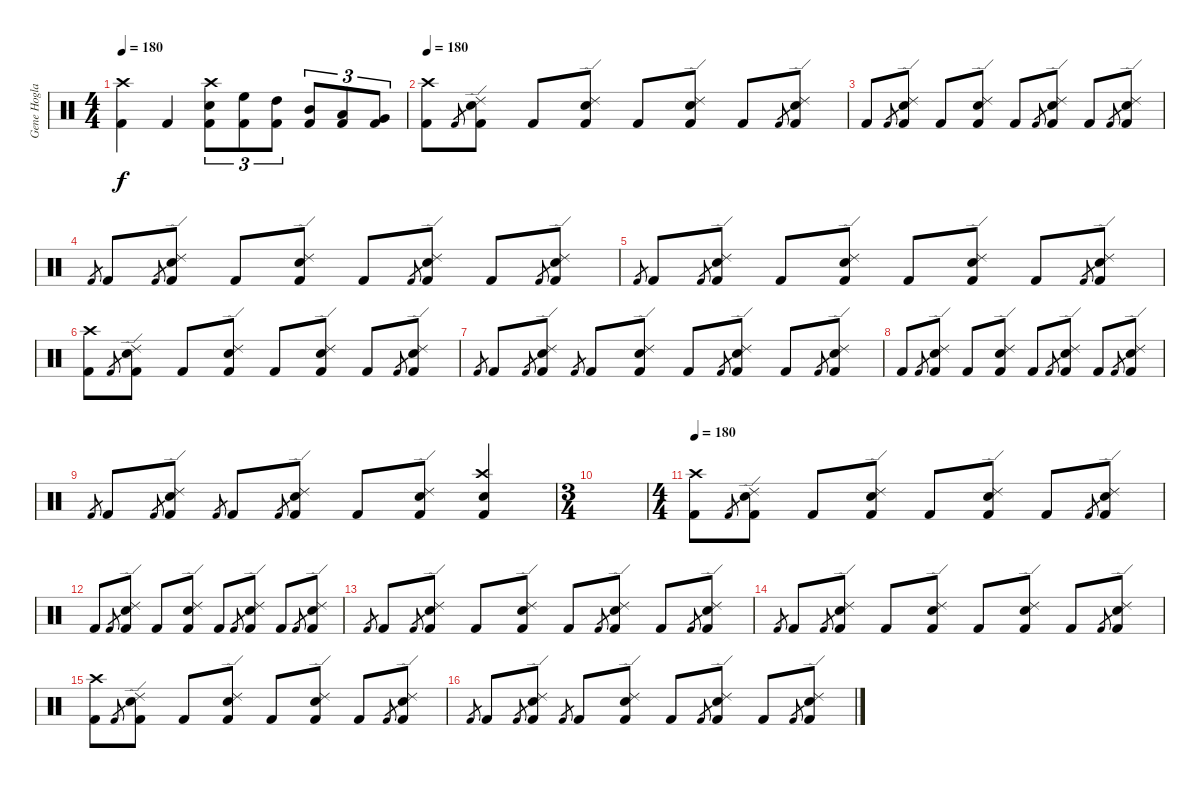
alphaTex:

\track ("Gene Hoglan" "Gene Hogla") {instrument percussion}
\staff {score}
\articulation defaults
\ts (4 4)
\tempo 180
\clef neutral
\ks c
("Kick (hit) 2" "Crash high (hit)").4{dy f} "Kick (hit) 2".4 ("Kick (hit) 2" "Electric Snare (hit)" "Crash high (hit)").8{tu (3 2)} ("Kick (hit) 2" "High Floor Tom (hit)").8{tu (3 2)} ("Kick (hit) 2" "High Tom (hit)").8{tu (3 2)} ("Kick (hit) 2" "Mid Tom (hit)").8{tu (3 2)} ("Kick (hit) 2" "Low Tom (hit)").8{tu (3 2)} ("Kick (hit) 2" "Very Low Tom (hit)").8{tu (3 2)} |
\tempo 180
("Kick (hit) 2" "Crash high (hit)").8 "Kick (hit) 2".8{gr} ("Kick (hit) 2" "Electric Snare (hit)" "Ride (edge) 2").8 "Kick (hit) 2".8 ("Kick (hit) 2" "Electric Snare (hit)" "Ride (edge) 2").8 "Kick (hit) 2".8 ("Kick (hit) 2" "Electric Snare (hit)" "Ride (edge) 2").8 "Kick (hit) 2".8 "Kick (hit) 2".8{gr} ("Kick (hit) 2" "Electric Snare (hit)" "Ride (edge) 2").8 |
"Kick (hit) 2".8 "Kick (hit) 2".8{gr} ("Kick (hit) 2" "Electric Snare (hit)" "Ride (edge) 2").8 "Kick (hit) 2".8 ("Kick (hit) 2" "Electric Snare (hit)" "Ride (edge) 2").8 "Kick (hit) 2".8 "Kick (hit) 2".8{gr} ("Kick (hit) 2" "Electric Snare (hit)" "Ride (edge) 2").8 "Kick (hit) 2".8 "Kick (hit) 2".8{gr} ("Kick (hit) 2" "Electric Snare (hit)" "Ride (edge) 2").8 |
"Kick (hit) 2".8{gr} "Kick (hit) 2".8 "Kick (hit) 2".8{gr} ("Kick (hit) 2" "Electric Snare (hit)" "Ride (edge) 2").8 "Kick (hit) 2".8 ("Kick (hit) 2" "Electric Snare (hit)" "Ride (edge) 2").8 "Kick (hit) 2".8 "Kick (hit) 2".8{gr} ("Kick (hit) 2" "Electric Snare (hit)" "Ride (edge) 2").8 "Kick (hit) 2".8 "Kick (hit) 2".8{gr} ("Kick (hit) 2" "Electric Snare (hit)" "Ride (edge) 2").8 |
"Kick (hit) 2".8{gr} "Kick (hit) 2".8 "Kick (hit) 2".8{gr} ("Kick (hit) 2" "Electric Snare (hit)" "Ride (edge) 2").8 "Kick (hit) 2".8 ("Kick (hit) 2" "Electric Snare (hit)" "Ride (edge) 2").8 "Kick (hit) 2".8 ("Kick (hit) 2" "Electric Snare (hit)" "Ride (edge) 2").8 "Kick (hit) 2".8 "Kick (hit) 2".8{gr} ("Kick (hit) 2" "Electric Snare (hit)" "Ride (edge) 2").8 |
("Kick (hit) 2" "Crash high (hit)").8 "Kick (hit) 2".8{gr} ("Kick (hit) 2" "Electric Snare (hit)" "Ride (edge) 2").8 "Kick (hit) 2".8 ("Kick (hit) 2" "Electric Snare (hit)" "Ride (edge) 2").8 "Kick (hit) 2".8 ("Kick (hit) 2" "Electric Snare (hit)" "Ride (edge) 2").8 "Kick (hit) 2".8 "Kick (hit) 2".8{gr} ("Kick (hit) 2" "Electric Snare (hit)" "Ride (edge) 2").8 |
"Kick (hit) 2".8{gr} "Kick (hit) 2".8 "Kick (hit) 2".8{gr} ("Kick (hit) 2" "Electric Snare (hit)" "Ride (edge) 2").8 "Kick (hit) 2".8{gr} "Kick (hit) 2".8 ("Kick (hit) 2" "Electric Snare (hit)" "Ride (edge) 2").8 "Kick (hit) 2".8 "Kick (hit) 2".8{gr} ("Kick (hit) 2" "Electric Snare (hit)" "Ride (edge) 2").8 "Kick (hit) 2".8 "Kick (hit) 2".8{gr} ("Kick (hit) 2" "Electric Snare (hit)" "Ride (edge) 2").8 |
"Kick (hit) 2".8 "Kick (hit) 2".8{gr} ("Kick (hit) 2" "Electric Snare (hit)" "Ride (edge) 2").8 "Kick (hit) 2".8 ("Kick (hit) 2" "Electric Snare (hit)" "Ride (edge) 2").8 "Kick (hit) 2".8 "Kick (hit) 2".8{gr} ("Kick (hit) 2" "Electric Snare (hit)" "Ride (edge) 2").8 "Kick (hit) 2".8 "Kick (hit) 2".8{gr} ("Kick (hit) 2" "Electric Snare (hit)" "Ride (edge) 2").8 |
"Kick (hit) 2".8{gr} "Kick (hit) 2".8 "Kick (hit) 2".8{gr} ("Kick (hit) 2" "Electric Snare (hit)" "Ride (edge) 2").8 "Kick (hit) 2".8{gr} "Kick (hit) 2".8 "Kick (hit) 2".8{gr} ("Kick (hit) 2" "Electric Snare (hit)" "Ride (edge) 2").8 "Kick (hit) 2".8 ("Kick (hit) 2" "Electric Snare (hit)" "Ride (edge) 2").8 ("Kick (hit) 2" "Electric Snare (hit)" "Crash high (hit)").4 |
\ts (3 4)
|
\ts (4 4)
\tempo 180
("Kick (hit) 2" "Crash high (hit)").8 "Kick (hit) 2".8{gr} ("Kick (hit) 2" "Electric Snare (hit)" "Ride (edge) 2").8 "Kick (hit) 2".8 ("Kick (hit) 2" "Electric Snare (hit)" "Ride (edge) 2").8 "Kick (hit) 2".8 ("Kick (hit) 2" "Electric Snare (hit)" "Ride (edge) 2").8 "Kick (hit) 2".8 "Kick (hit) 2".8{gr} ("Kick (hit) 2" "Electric Snare (hit)" "Ride (edge) 2").8 |
"Kick (hit) 2".8 "Kick (hit) 2".8{gr} ("Kick (hit) 2" "Electric Snare (hit)" "Ride (edge) 2").8 "Kick (hit) 2".8 ("Kick (hit) 2" "Electric Snare (hit)" "Ride (edge) 2").8 "Kick (hit) 2".8 "Kick (hit) 2".8{gr} ("Kick (hit) 2" "Electric Snare (hit)" "Ride (edge) 2").8 "Kick (hit) 2".8 "Kick (hit) 2".8{gr} ("Kick (hit) 2" "Electric Snare (hit)" "Ride (edge) 2").8 |
"Kick (hit) 2".8{gr} "Kick (hit) 2".8 "Kick (hit) 2".8{gr} ("Kick (hit) 2" "Electric Snare (hit)" "Ride (edge) 2").8 "Kick (hit) 2".8 ("Kick (hit) 2" "Electric Snare (hit)" "Ride (edge) 2").8 "Kick (hit) 2".8 "Kick (hit) 2".8{gr} ("Kick (hit) 2" "Electric Snare (hit)" "Ride (edge) 2").8 "Kick (hit) 2".8 "Kick (hit) 2".8{gr} ("Kick (hit) 2" "Electric Snare (hit)" "Ride (edge) 2").8 |
"Kick (hit) 2".8{gr} "Kick (hit) 2".8 "Kick (hit) 2".8{gr} ("Kick (hit) 2" "Electric Snare (hit)" "Ride (edge) 2").8 "Kick (hit) 2".8 ("Kick (hit) 2" "Electric Snare (hit)" "Ride (edge) 2").8 "Kick (hit) 2".8 ("Kick (hit) 2" "Electric Snare (hit)" "Ride (edge) 2").8 "Kick (hit) 2".8 "Kick (hit) 2".8{gr} ("Kick (hit) 2" "Electric Snare (hit)" "Ride (edge) 2").8 |
("Kick (hit) 2" "Crash high (hit)").8 "Kick (hit) 2".8{gr} ("Kick (hit) 2" "Electric Snare (hit)" "Ride (edge) 2").8 "Kick (hit) 2".8 ("Kick (hit) 2" "Electric Snare (hit)" "Ride (edge) 2").8 "Kick (hit) 2".8 ("Kick (hit) 2" "Electric Snare (hit)" "Ride (edge) 2").8 "Kick (hit) 2".8 "Kick (hit) 2".8{gr} ("Kick (hit) 2" "Electric Snare (hit)" "Ride (edge) 2").8 |
"Kick (hit) 2".8{gr} "Kick (hit) 2".8 "Kick (hit) 2".8{gr} ("Kick (hit) 2" "Electric Snare (hit)" "Ride (edge) 2").8 "Kick (hit) 2".8{gr} "Kick (hit) 2".8 ("Kick (hit) 2" "Electric Snare (hit)" "Ride (edge) 2").8 "Kick (hit) 2".8 "Kick (hit) 2".8{gr} ("Kick (hit) 2" "Electric Snare (hit)" "Ride (edge) 2").8 "Kick (hit) 2".8 "Kick (hit) 2".8{gr} ("Kick (hit) 2" "Electric Snare (hit)" "Ride (edge) 2").8
